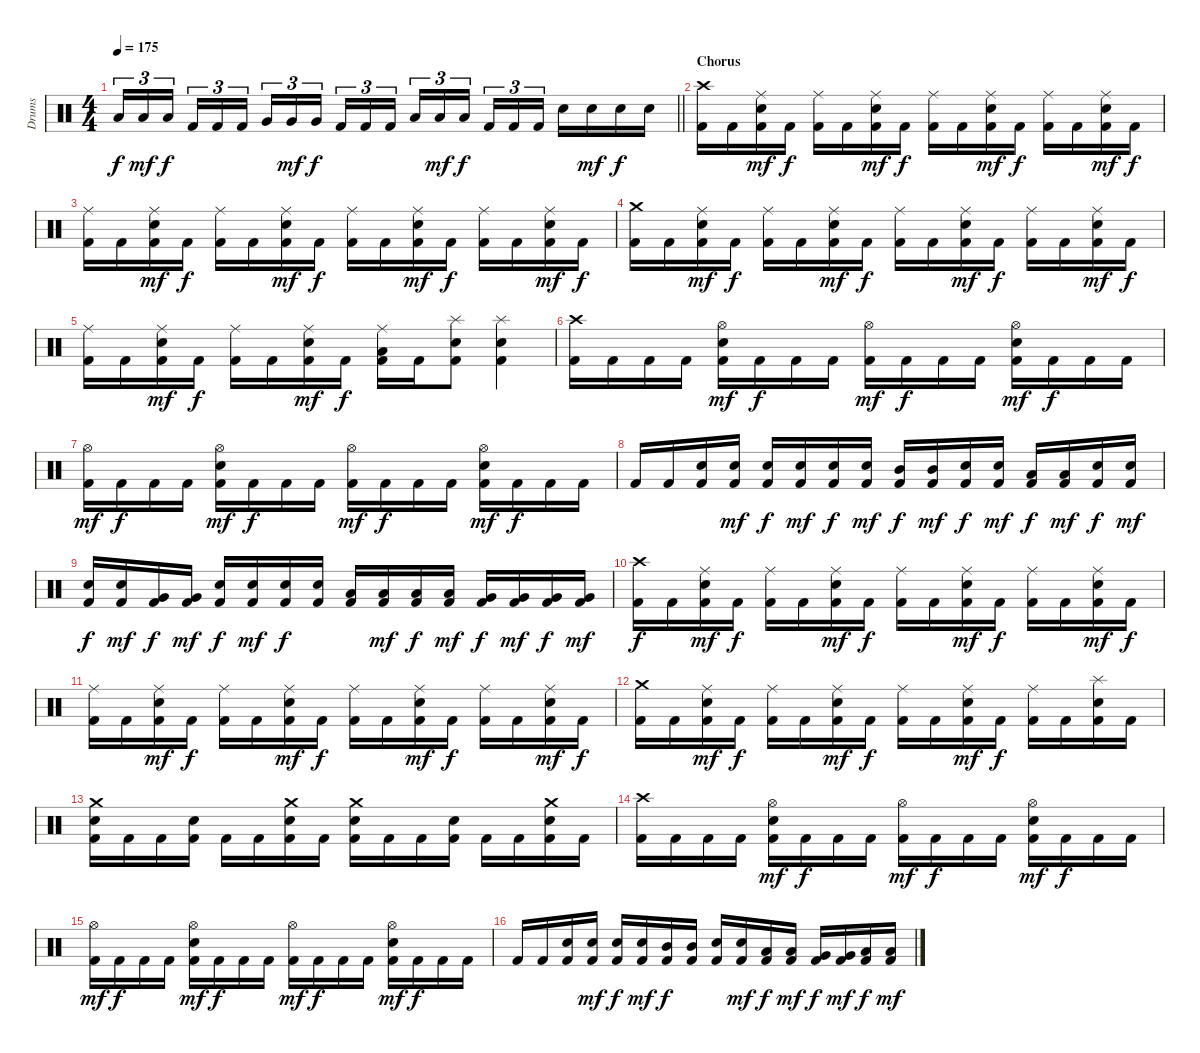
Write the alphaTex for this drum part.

\track ("Drums" "Drums") {instrument percussion}
\staff {score}
\articulation defaults
\ts (4 4)
\tempo 175
\clef neutral
\barLineRight lightlight
\ks c "Low Tom (hit)".16{tu (3 2) dy f} "Low Tom (hit)".16{tu (3 2) dy mf} "Low Tom (hit)".16{tu (3 2) dy f beam splitsecondary} "Kick (hit) 2".16{tu (3 2)} "Kick (hit) 2".16{tu (3 2)} "Kick (hit) 2".16{tu (3 2)} "Very Low Tom (hit)".16{tu (3 2)} "Very Low Tom (hit)".16{tu (3 2) dy mf} "Very Low Tom (hit)".16{tu (3 2) dy f beam splitsecondary} "Kick (hit) 2".16{tu (3 2)} "Kick (hit) 2".16{tu (3 2)} "Kick (hit) 2".16{tu (3 2)} "Low Floor Tom (hit)".16{tu (3 2)} "Low Floor Tom (hit)".16{tu (3 2) dy mf} "Low Floor Tom (hit)".16{tu (3 2) dy f beam splitsecondary} "Kick (hit) 2".16{tu (3 2)} "Kick (hit) 2".16{tu (3 2)} "Kick (hit) 2".16{tu (3 2)} "Electric Snare (hit)".16 "Electric Snare (hit)".16{dy mf} "Electric Snare (hit)".16{dy f} "Electric Snare (hit)".16
|
\section ("" "Chorus")
("Kick (hit) 2" "Crash high (hit)").16 "Kick (hit) 2".16 ("Kick (hit) 2" "Ride (middle)" "Electric Snare (hit)").16{dy mf} "Kick (hit) 2".16{dy f} ("Kick (hit) 2" "Ride (middle)").16 "Kick (hit) 2".16 ("Kick (hit) 2" "Ride (middle)" "Electric Snare (hit)").16{dy mf} "Kick (hit) 2".16{dy f} ("Kick (hit) 2" "Ride (middle)").16 "Kick (hit) 2".16 ("Kick (hit) 2" "Ride (middle)" "Electric Snare (hit)").16{dy mf} "Kick (hit) 2".16{dy f} ("Kick (hit) 2" "Ride (middle)").16 "Kick (hit) 2".16 ("Kick (hit) 2" "Ride (middle)" "Electric Snare (hit)").16{dy mf} "Kick (hit) 2".16{dy f} |
("Kick (hit) 2" "Ride (middle)").16 "Kick (hit) 2".16 ("Kick (hit) 2" "Ride (middle)" "Electric Snare (hit)").16{dy mf} "Kick (hit) 2".16{dy f} ("Kick (hit) 2" "Ride (middle)").16 "Kick (hit) 2".16 ("Kick (hit) 2" "Ride (middle)" "Electric Snare (hit)").16{dy mf} "Kick (hit) 2".16{dy f} ("Kick (hit) 2" "Ride (middle)").16 "Kick (hit) 2".16 ("Kick (hit) 2" "Ride (middle)" "Electric Snare (hit)").16{dy mf} "Kick (hit) 2".16{dy f} ("Kick (hit) 2" "Ride (middle)").16 "Kick (hit) 2".16 ("Kick (hit) 2" "Ride (middle)" "Electric Snare (hit)").16{dy mf} "Kick (hit) 2".16{dy f} |
("Kick (hit) 2" "Crash medium (hit)").16 "Kick (hit) 2".16 ("Kick (hit) 2" "Ride (middle)" "Electric Snare (hit)").16{dy mf} "Kick (hit) 2".16{dy f} ("Kick (hit) 2" "Ride (middle)").16 "Kick (hit) 2".16 ("Kick (hit) 2" "Ride (middle)" "Electric Snare (hit)").16{dy mf} "Kick (hit) 2".16{dy f} ("Kick (hit) 2" "Ride (middle)").16 "Kick (hit) 2".16 ("Kick (hit) 2" "Ride (middle)" "Electric Snare (hit)").16{dy mf} "Kick (hit) 2".16{dy f} ("Kick (hit) 2" "Ride (middle)").16 "Kick (hit) 2".16 ("Kick (hit) 2" "Ride (middle)" "Electric Snare (hit)").16{dy mf} "Kick (hit) 2".16{dy f} |
("Kick (hit) 2" "Ride (middle)").16 "Kick (hit) 2".16 ("Kick (hit) 2" "Ride (middle)" "Electric Snare (hit)").16{dy mf} "Kick (hit) 2".16{dy f} ("Kick (hit) 2" "Ride (middle)").16 "Kick (hit) 2".16 ("Kick (hit) 2" "Ride (middle)" "Electric Snare (hit)").16{dy mf} "Kick (hit) 2".16{dy f} ("Kick (hit) 2" "Ride (middle)" "Low Tom (hit)").16 "Kick (hit) 2".16 ("Kick (hit) 2" "Splash (hit)" "Electric Snare (hit)").8 ("Kick (hit) 2" "Splash (hit)" "Electric Snare (hit)").4 |
("Kick (hit) 2" "Crash high (hit)").16 "Kick (hit) 2".16 "Kick (hit) 2".16 "Kick (hit) 2".16 ("Kick (hit) 2" "Hi-Hat (open)" "Electric Snare (hit)").16{dy mf} "Kick (hit) 2".16{dy f} "Kick (hit) 2".16 "Kick (hit) 2".16 ("Kick (hit) 2" "Hi-Hat (open)").16{dy mf} "Kick (hit) 2".16{dy f} "Kick (hit) 2".16 "Kick (hit) 2".16 ("Kick (hit) 2" "Hi-Hat (open)" "Electric Snare (hit)").16{dy mf} "Kick (hit) 2".16{dy f} "Kick (hit) 2".16 "Kick (hit) 2".16 |
("Kick (hit) 2" "Hi-Hat (open)").16{dy mf} "Kick (hit) 2".16{dy f} "Kick (hit) 2".16 "Kick (hit) 2".16 ("Kick (hit) 2" "Hi-Hat (open)" "Electric Snare (hit)").16{dy mf} "Kick (hit) 2".16{dy f} "Kick (hit) 2".16 "Kick (hit) 2".16 ("Kick (hit) 2" "Hi-Hat (open)").16{dy mf} "Kick (hit) 2".16{dy f} "Kick (hit) 2".16 "Kick (hit) 2".16 ("Kick (hit) 2" "Hi-Hat (open)" "Electric Snare (hit)").16{dy mf} "Kick (hit) 2".16{dy f} "Kick (hit) 2".16 "Kick (hit) 2".16 |
"Kick (hit) 2".16 "Kick (hit) 2".16 ("Kick (hit) 2" "Electric Snare (hit)").16 ("Kick (hit) 2" "Electric Snare (hit)").16{dy mf} ("Kick (hit) 2" "Electric Snare (hit)").16{dy f} ("Kick (hit) 2" "Electric Snare (hit)").16{dy mf} ("Kick (hit) 2" "Electric Snare (hit)").16{dy f} ("Kick (hit) 2" "Electric Snare (hit)").16{dy mf} ("Kick (hit) 2" "Mid Tom (hit)").16{dy f} ("Kick (hit) 2" "Mid Tom (hit)").16{dy mf} ("Kick (hit) 2" "Electric Snare (hit)").16{dy f} ("Kick (hit) 2" "Electric Snare (hit)").16{dy mf} ("Kick (hit) 2" "Low Tom (hit)").16{dy f} ("Kick (hit) 2" "Low Tom (hit)").16{dy mf} ("Kick (hit) 2" "Electric Snare (hit)").16{dy f} ("Kick (hit) 2" "Electric Snare (hit)").16{dy mf} |
("Kick (hit) 2" "Electric Snare (hit)").16{dy f} ("Kick (hit) 2" "Electric Snare (hit)").16{dy mf} ("Kick (hit) 2" "Very Low Tom (hit)").16{dy f} ("Kick (hit) 2" "Very Low Tom (hit)").16{dy mf} ("Kick (hit) 2" "Electric Snare (hit)").16{dy f} ("Kick (hit) 2" "Electric Snare (hit)").16{dy mf} ("Kick (hit) 2" "Electric Snare (hit)").16{dy f} ("Kick (hit) 2" "Electric Snare (hit)").16 ("Kick (hit) 2" "Low Tom (hit)").16 ("Kick (hit) 2" "Low Tom (hit)").16{dy mf} ("Kick (hit) 2" "Low Tom (hit)").16{dy f} ("Kick (hit) 2" "Low Tom (hit)").16{dy mf} ("Kick (hit) 2" "Very Low Tom (hit)").16{dy f} ("Kick (hit) 2" "Very Low Tom (hit)").16{dy mf} ("Kick (hit) 2" "Very Low Tom (hit)").16{dy f} ("Kick (hit) 2" "Very Low Tom (hit)").16{dy mf} |
("Kick (hit) 2" "Crash high (hit)").16{dy f} "Kick (hit) 2".16 ("Kick (hit) 2" "Ride (middle)" "Electric Snare (hit)").16{dy mf} "Kick (hit) 2".16{dy f} ("Kick (hit) 2" "Ride (middle)").16 "Kick (hit) 2".16 ("Kick (hit) 2" "Ride (middle)" "Electric Snare (hit)").16{dy mf} "Kick (hit) 2".16{dy f} ("Kick (hit) 2" "Ride (middle)").16 "Kick (hit) 2".16 ("Kick (hit) 2" "Ride (middle)" "Electric Snare (hit)").16{dy mf} "Kick (hit) 2".16{dy f} ("Kick (hit) 2" "Ride (middle)").16 "Kick (hit) 2".16 ("Kick (hit) 2" "Ride (middle)" "Electric Snare (hit)").16{dy mf} "Kick (hit) 2".16{dy f} |
("Kick (hit) 2" "Ride (middle)").16 "Kick (hit) 2".16 ("Kick (hit) 2" "Ride (middle)" "Electric Snare (hit)").16{dy mf} "Kick (hit) 2".16{dy f} ("Kick (hit) 2" "Ride (middle)").16 "Kick (hit) 2".16 ("Kick (hit) 2" "Ride (middle)" "Electric Snare (hit)").16{dy mf} "Kick (hit) 2".16{dy f} ("Kick (hit) 2" "Ride (middle)").16 "Kick (hit) 2".16 ("Kick (hit) 2" "Ride (middle)" "Electric Snare (hit)").16{dy mf} "Kick (hit) 2".16{dy f} ("Kick (hit) 2" "Ride (middle)").16 "Kick (hit) 2".16 ("Kick (hit) 2" "Ride (middle)" "Electric Snare (hit)").16{dy mf} "Kick (hit) 2".16{dy f} |
("Kick (hit) 2" "Crash medium (hit)").16 "Kick (hit) 2".16 ("Kick (hit) 2" "Ride (middle)" "Electric Snare (hit)").16{dy mf} "Kick (hit) 2".16{dy f} ("Kick (hit) 2" "Ride (middle)").16 "Kick (hit) 2".16 ("Kick (hit) 2" "Ride (middle)" "Electric Snare (hit)").16{dy mf} "Kick (hit) 2".16{dy f} ("Kick (hit) 2" "Ride (middle)").16 "Kick (hit) 2".16 ("Kick (hit) 2" "Ride (middle)" "Electric Snare (hit)").16{dy mf} "Kick (hit) 2".16{dy f} ("Kick (hit) 2" "Ride (middle)").16 "Kick (hit) 2".16 ("Kick (hit) 2" "Splash (hit)" "Electric Snare (hit)").16 "Kick (hit) 2".16 |
("Kick (hit) 2" "Crash medium (hit)" "Electric Snare (hit)").16 "Kick (hit) 2".16 "Kick (hit) 2".16 ("Kick (hit) 2" "Electric Snare (hit)").16 "Kick (hit) 2".16 "Kick (hit) 2".16 ("Kick (hit) 2" "Crash medium (hit)" "Electric Snare (hit)").16 "Kick (hit) 2".16 ("Kick (hit) 2" "Crash medium (hit)" "Electric Snare (hit)").16 "Kick (hit) 2".16 "Kick (hit) 2".16 ("Kick (hit) 2" "Electric Snare (hit)").16 "Kick (hit) 2".16 "Kick (hit) 2".16 ("Kick (hit) 2" "Crash medium (hit)" "Electric Snare (hit)").16 "Kick (hit) 2".16 |
("Kick (hit) 2" "Crash high (hit)").16 "Kick (hit) 2".16 "Kick (hit) 2".16 "Kick (hit) 2".16 ("Kick (hit) 2" "Hi-Hat (open)" "Electric Snare (hit)").16{dy mf} "Kick (hit) 2".16{dy f} "Kick (hit) 2".16 "Kick (hit) 2".16 ("Kick (hit) 2" "Hi-Hat (open)").16{dy mf} "Kick (hit) 2".16{dy f} "Kick (hit) 2".16 "Kick (hit) 2".16 ("Kick (hit) 2" "Hi-Hat (open)" "Electric Snare (hit)").16{dy mf} "Kick (hit) 2".16{dy f} "Kick (hit) 2".16 "Kick (hit) 2".16 |
("Kick (hit) 2" "Hi-Hat (open)").16{dy mf} "Kick (hit) 2".16{dy f} "Kick (hit) 2".16 "Kick (hit) 2".16 ("Kick (hit) 2" "Hi-Hat (open)" "Electric Snare (hit)").16{dy mf} "Kick (hit) 2".16{dy f} "Kick (hit) 2".16 "Kick (hit) 2".16 ("Kick (hit) 2" "Hi-Hat (open)").16{dy mf} "Kick (hit) 2".16{dy f} "Kick (hit) 2".16 "Kick (hit) 2".16 ("Kick (hit) 2" "Hi-Hat (open)" "Electric Snare (hit)").16{dy mf} "Kick (hit) 2".16{dy f} "Kick (hit) 2".16 "Kick (hit) 2".16 |
"Kick (hit) 2".16 "Kick (hit) 2".16 ("Kick (hit) 2" "Electric Snare (hit)").16 ("Kick (hit) 2" "Electric Snare (hit)").16{dy mf} ("Kick (hit) 2" "Electric Snare (hit)").16{dy f} ("Kick (hit) 2" "Electric Snare (hit)").16{dy mf} ("Kick (hit) 2" "Mid Tom (hit)").16{dy f} ("Kick (hit) 2" "Mid Tom (hit)").16 ("Kick (hit) 2" "Electric Snare (hit)").16 ("Kick (hit) 2" "Electric Snare (hit)").16{dy mf} ("Kick (hit) 2" "Low Tom (hit)").16{dy f} ("Kick (hit) 2" "Low Tom (hit)").16{dy mf} ("Kick (hit) 2" "Very Low Tom (hit)").16{dy f} ("Kick (hit) 2" "Very Low Tom (hit)").16{dy mf} ("Kick (hit) 2" "Low Floor Tom (hit)").16{dy f} ("Kick (hit) 2" "Low Floor Tom (hit)").16{dy mf}
